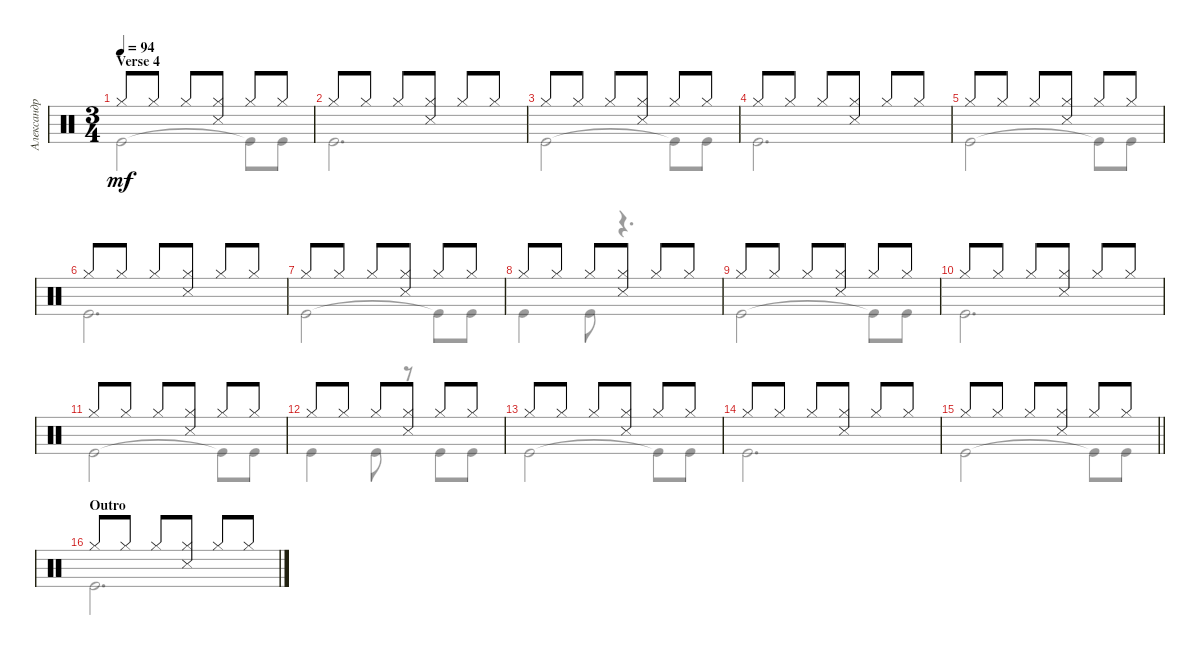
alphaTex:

\track ("Александр Манякин" "Александр ") {instrument percussion}
\staff {score}
\articulation defaults
\voice
\ts (3 4)
\section ("" "Verse 4")
\tempo 94
\clef neutral
\ks c "Hi-Hat (closed)".8{dy mf} "Hi-Hat (closed)".8 "Hi-Hat (closed)".8
("Hi-Hat (closed)" "Snare (side stick) 3").8 "Hi-Hat (closed)".8 "Hi-Hat (closed)".8 |
"Hi-Hat (closed)".8 "Hi-Hat (closed)".8 "Hi-Hat (closed)".8 ("Hi-Hat (closed)" "Snare (side stick) 3").8 "Hi-Hat (closed)".8 "Hi-Hat (closed)".8 |
"Hi-Hat (closed)".8 "Hi-Hat (closed)".8 "Hi-Hat (closed)".8 ("Hi-Hat (closed)" "Snare (side stick) 3").8 "Hi-Hat (closed)".8 "Hi-Hat (closed)".8 |
"Hi-Hat (closed)".8 "Hi-Hat (closed)".8 "Hi-Hat (closed)".8 ("Hi-Hat (closed)" "Snare (side stick) 3").8 "Hi-Hat (closed)".8 "Hi-Hat (closed)".8 |
"Hi-Hat (closed)".8 "Hi-Hat (closed)".8 "Hi-Hat (closed)".8 ("Hi-Hat (closed)" "Snare (side stick) 3").8 "Hi-Hat (closed)".8 "Hi-Hat (closed)".8 |
"Hi-Hat (closed)".8 "Hi-Hat (closed)".8 "Hi-Hat (closed)".8 ("Hi-Hat (closed)" "Snare (side stick) 3").8 "Hi-Hat (closed)".8 "Hi-Hat (closed)".8 |
"Hi-Hat (closed)".8 "Hi-Hat (closed)".8 "Hi-Hat (closed)".8 ("Hi-Hat (closed)" "Snare (side stick) 3").8 "Hi-Hat (closed)".8 "Hi-Hat (closed)".8 |
"Hi-Hat (closed)".8 "Hi-Hat (closed)".8 "Hi-Hat (closed)".8 ("Hi-Hat (closed)" "Snare (side stick) 3").8 "Hi-Hat (closed)".8 "Hi-Hat (closed)".8 |
"Hi-Hat (closed)".8 "Hi-Hat (closed)".8 "Hi-Hat (closed)".8 ("Hi-Hat (closed)" "Snare (side stick) 3").8 "Hi-Hat (closed)".8 "Hi-Hat (closed)".8 |
"Hi-Hat (closed)".8 "Hi-Hat (closed)".8 "Hi-Hat (closed)".8 ("Hi-Hat (closed)" "Snare (side stick) 3").8 "Hi-Hat (closed)".8 "Hi-Hat (closed)".8 |
"Hi-Hat (closed)".8 "Hi-Hat (closed)".8 "Hi-Hat (closed)".8 ("Hi-Hat (closed)" "Snare (side stick) 3").8 "Hi-Hat (closed)".8 "Hi-Hat (closed)".8 |
"Hi-Hat (closed)".8 "Hi-Hat (closed)".8 "Hi-Hat (closed)".8 ("Hi-Hat (closed)" "Snare (side stick) 3").8 "Hi-Hat (closed)".8 "Hi-Hat (closed)".8 |
"Hi-Hat (closed)".8 "Hi-Hat (closed)".8 "Hi-Hat (closed)".8 ("Hi-Hat (closed)" "Snare (side stick) 3").8 "Hi-Hat (closed)".8 "Hi-Hat (closed)".8 |
"Hi-Hat (closed)".8 "Hi-Hat (closed)".8 "Hi-Hat (closed)".8 ("Hi-Hat (closed)" "Snare (side stick) 3").8 "Hi-Hat (closed)".8 "Hi-Hat (closed)".8 |
\barLineRight lightlight "Hi-Hat (closed)".8 "Hi-Hat (closed)".8 "Hi-Hat (closed)".8
("Hi-Hat (closed)" "Snare (side stick) 3").8 "Hi-Hat (closed)".8 "Hi-Hat (closed)".8 |
\section ("" "Outro")
"Hi-Hat (closed)".8 "Hi-Hat (closed)".8 "Hi-Hat (closed)".8 ("Hi-Hat (closed)" "Snare (side stick) 3").8 "Hi-Hat (closed)".8 "Hi-Hat (closed)".8
\voice
\clef neutral
\ottava regular
\simile none
\ks c "Kick (hit)".2{dy mf} "Kick (hit)"{t}.8 "Kick (hit)".8
|
"Kick (hit)".2{d} |
"Kick (hit)".2 "Kick (hit)"{t}.8 "Kick (hit)".8 |
"Kick (hit)".2{d} |
"Kick (hit)".2 "Kick (hit)"{t}.8 "Kick (hit)".8 |
"Kick (hit)".2{d} |
"Kick (hit)".2 "Kick (hit)"{t}.8 "Kick (hit)".8 |
"Kick (hit)".4 "Kick (hit)".8 r.4{d} |
"Kick (hit)".2 "Kick (hit)"{t}.8 "Kick (hit)".8 |
"Kick (hit)".2{d} |
"Kick (hit)".2 "Kick (hit)"{t}.8 "Kick (hit)".8 |
"Kick (hit)".4 "Kick (hit)".8 r.8 "Kick (hit)".8 "Kick (hit)".8 |
"Kick (hit)".2 "Kick (hit)"{t}.8 "Kick (hit)".8 |
"Kick (hit)".2{d} |
\barLineRight lightlight "Kick (hit)".2 "Kick (hit)"{t}.8 "Kick (hit)".8
|
"Kick (hit)".2{d}
